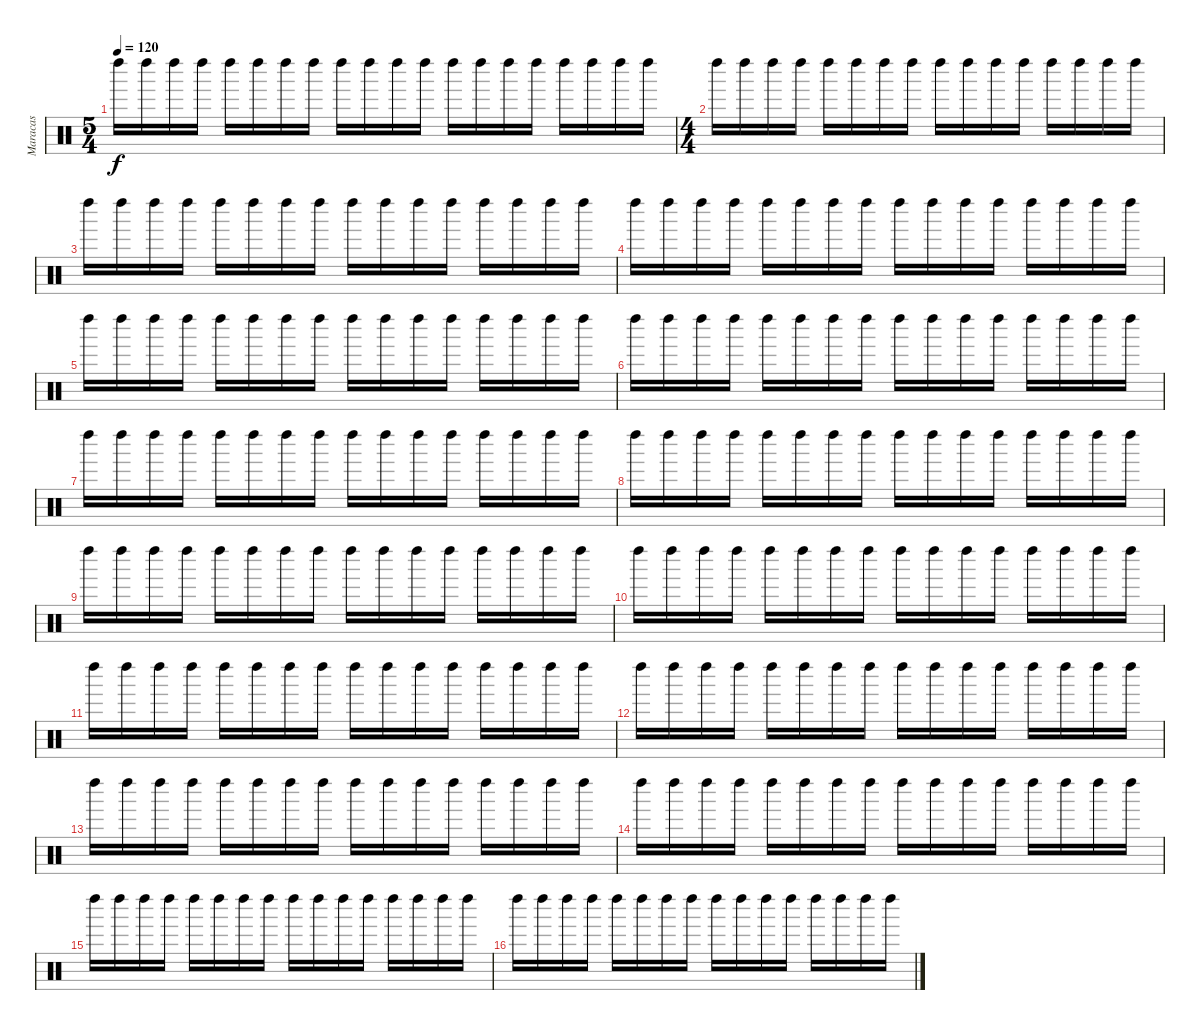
\track ("Maracas" "Maracas") {instrument percussion}
\staff {score}
\articulation defaults
\ts (5 4)
\tempo 120
\clef neutral
\ks c "Left Maraca (hit)".16{dy f} "Left Maraca (hit)".16 "Left Maraca (hit)".16 "Left Maraca (hit)".16 "Left Maraca (hit)".16 "Left Maraca (hit)".16 "Left Maraca (hit)".16 "Left Maraca (hit)".16 "Left Maraca (hit)".16 "Left Maraca (hit)".16 "Left Maraca (hit)".16 "Left Maraca (hit)".16 "Left Maraca (hit)".16 "Left Maraca (hit)".16 "Left Maraca (hit)".16 "Left Maraca (hit)".16 "Left Maraca (hit)".16 "Left Maraca (hit)".16 "Left Maraca (hit)".16 "Left Maraca (hit)".16
|
\ts (4 4)
"Left Maraca (hit)".16 "Left Maraca (hit)".16 "Left Maraca (hit)".16 "Left Maraca (hit)".16 "Left Maraca (hit)".16 "Left Maraca (hit)".16 "Left Maraca (hit)".16 "Left Maraca (hit)".16 "Left Maraca (hit)".16 "Left Maraca (hit)".16 "Left Maraca (hit)".16 "Left Maraca (hit)".16 "Left Maraca (hit)".16 "Left Maraca (hit)".16 "Left Maraca (hit)".16 "Left Maraca (hit)".16 |
"Left Maraca (hit)".16 "Left Maraca (hit)".16 "Left Maraca (hit)".16 "Left Maraca (hit)".16 "Left Maraca (hit)".16 "Left Maraca (hit)".16 "Left Maraca (hit)".16 "Left Maraca (hit)".16 "Left Maraca (hit)".16 "Left Maraca (hit)".16 "Left Maraca (hit)".16 "Left Maraca (hit)".16 "Left Maraca (hit)".16 "Left Maraca (hit)".16 "Left Maraca (hit)".16 "Left Maraca (hit)".16 |
"Left Maraca (hit)".16 "Left Maraca (hit)".16 "Left Maraca (hit)".16 "Left Maraca (hit)".16 "Left Maraca (hit)".16 "Left Maraca (hit)".16 "Left Maraca (hit)".16 "Left Maraca (hit)".16 "Left Maraca (hit)".16 "Left Maraca (hit)".16 "Left Maraca (hit)".16 "Left Maraca (hit)".16 "Left Maraca (hit)".16 "Left Maraca (hit)".16 "Left Maraca (hit)".16 "Left Maraca (hit)".16 |
"Left Maraca (hit)".16 "Left Maraca (hit)".16 "Left Maraca (hit)".16 "Left Maraca (hit)".16 "Left Maraca (hit)".16 "Left Maraca (hit)".16 "Left Maraca (hit)".16 "Left Maraca (hit)".16 "Left Maraca (hit)".16 "Left Maraca (hit)".16 "Left Maraca (hit)".16 "Left Maraca (hit)".16 "Left Maraca (hit)".16 "Left Maraca (hit)".16 "Left Maraca (hit)".16 "Left Maraca (hit)".16 |
"Left Maraca (hit)".16 "Left Maraca (hit)".16 "Left Maraca (hit)".16 "Left Maraca (hit)".16 "Left Maraca (hit)".16 "Left Maraca (hit)".16 "Left Maraca (hit)".16 "Left Maraca (hit)".16 "Left Maraca (hit)".16 "Left Maraca (hit)".16 "Left Maraca (hit)".16 "Left Maraca (hit)".16 "Left Maraca (hit)".16 "Left Maraca (hit)".16 "Left Maraca (hit)".16 "Left Maraca (hit)".16 |
"Left Maraca (hit)".16 "Left Maraca (hit)".16 "Left Maraca (hit)".16 "Left Maraca (hit)".16 "Left Maraca (hit)".16 "Left Maraca (hit)".16 "Left Maraca (hit)".16 "Left Maraca (hit)".16 "Left Maraca (hit)".16 "Left Maraca (hit)".16 "Left Maraca (hit)".16 "Left Maraca (hit)".16 "Left Maraca (hit)".16 "Left Maraca (hit)".16 "Left Maraca (hit)".16 "Left Maraca (hit)".16 |
"Left Maraca (hit)".16 "Left Maraca (hit)".16 "Left Maraca (hit)".16 "Left Maraca (hit)".16 "Left Maraca (hit)".16 "Left Maraca (hit)".16 "Left Maraca (hit)".16 "Left Maraca (hit)".16 "Left Maraca (hit)".16 "Left Maraca (hit)".16 "Left Maraca (hit)".16 "Left Maraca (hit)".16 "Left Maraca (hit)".16 "Left Maraca (hit)".16 "Left Maraca (hit)".16 "Left Maraca (hit)".16 |
"Left Maraca (hit)".16 "Left Maraca (hit)".16 "Left Maraca (hit)".16 "Left Maraca (hit)".16 "Left Maraca (hit)".16 "Left Maraca (hit)".16 "Left Maraca (hit)".16 "Left Maraca (hit)".16 "Left Maraca (hit)".16 "Left Maraca (hit)".16 "Left Maraca (hit)".16 "Left Maraca (hit)".16 "Left Maraca (hit)".16 "Left Maraca (hit)".16 "Left Maraca (hit)".16 "Left Maraca (hit)".16 |
"Left Maraca (hit)".16 "Left Maraca (hit)".16 "Left Maraca (hit)".16 "Left Maraca (hit)".16 "Left Maraca (hit)".16 "Left Maraca (hit)".16 "Left Maraca (hit)".16 "Left Maraca (hit)".16 "Left Maraca (hit)".16 "Left Maraca (hit)".16 "Left Maraca (hit)".16 "Left Maraca (hit)".16 "Left Maraca (hit)".16 "Left Maraca (hit)".16 "Left Maraca (hit)".16 "Left Maraca (hit)".16 |
"Left Maraca (hit)".16 "Left Maraca (hit)".16 "Left Maraca (hit)".16 "Left Maraca (hit)".16 "Left Maraca (hit)".16 "Left Maraca (hit)".16 "Left Maraca (hit)".16 "Left Maraca (hit)".16 "Left Maraca (hit)".16 "Left Maraca (hit)".16 "Left Maraca (hit)".16 "Left Maraca (hit)".16 "Left Maraca (hit)".16 "Left Maraca (hit)".16 "Left Maraca (hit)".16 "Left Maraca (hit)".16 |
"Left Maraca (hit)".16 "Left Maraca (hit)".16 "Left Maraca (hit)".16 "Left Maraca (hit)".16 "Left Maraca (hit)".16 "Left Maraca (hit)".16 "Left Maraca (hit)".16 "Left Maraca (hit)".16 "Left Maraca (hit)".16 "Left Maraca (hit)".16 "Left Maraca (hit)".16 "Left Maraca (hit)".16 "Left Maraca (hit)".16 "Left Maraca (hit)".16 "Left Maraca (hit)".16 "Left Maraca (hit)".16 |
"Left Maraca (hit)".16 "Left Maraca (hit)".16 "Left Maraca (hit)".16 "Left Maraca (hit)".16 "Left Maraca (hit)".16 "Left Maraca (hit)".16 "Left Maraca (hit)".16 "Left Maraca (hit)".16 "Left Maraca (hit)".16 "Left Maraca (hit)".16 "Left Maraca (hit)".16 "Left Maraca (hit)".16 "Left Maraca (hit)".16 "Left Maraca (hit)".16 "Left Maraca (hit)".16 "Left Maraca (hit)".16 |
"Left Maraca (hit)".16 "Left Maraca (hit)".16 "Left Maraca (hit)".16 "Left Maraca (hit)".16 "Left Maraca (hit)".16 "Left Maraca (hit)".16 "Left Maraca (hit)".16 "Left Maraca (hit)".16 "Left Maraca (hit)".16 "Left Maraca (hit)".16 "Left Maraca (hit)".16 "Left Maraca (hit)".16 "Left Maraca (hit)".16 "Left Maraca (hit)".16 "Left Maraca (hit)".16 "Left Maraca (hit)".16 |
"Left Maraca (hit)".16 "Left Maraca (hit)".16 "Left Maraca (hit)".16 "Left Maraca (hit)".16 "Left Maraca (hit)".16 "Left Maraca (hit)".16 "Left Maraca (hit)".16 "Left Maraca (hit)".16 "Left Maraca (hit)".16 "Left Maraca (hit)".16 "Left Maraca (hit)".16 "Left Maraca (hit)".16 "Left Maraca (hit)".16 "Left Maraca (hit)".16 "Left Maraca (hit)".16 "Left Maraca (hit)".16 |
"Left Maraca (hit)".16 "Left Maraca (hit)".16 "Left Maraca (hit)".16 "Left Maraca (hit)".16 "Left Maraca (hit)".16 "Left Maraca (hit)".16 "Left Maraca (hit)".16 "Left Maraca (hit)".16 "Left Maraca (hit)".16 "Left Maraca (hit)".16 "Left Maraca (hit)".16 "Left Maraca (hit)".16 "Left Maraca (hit)".16 "Left Maraca (hit)".16 "Left Maraca (hit)".16 "Left Maraca (hit)".16
